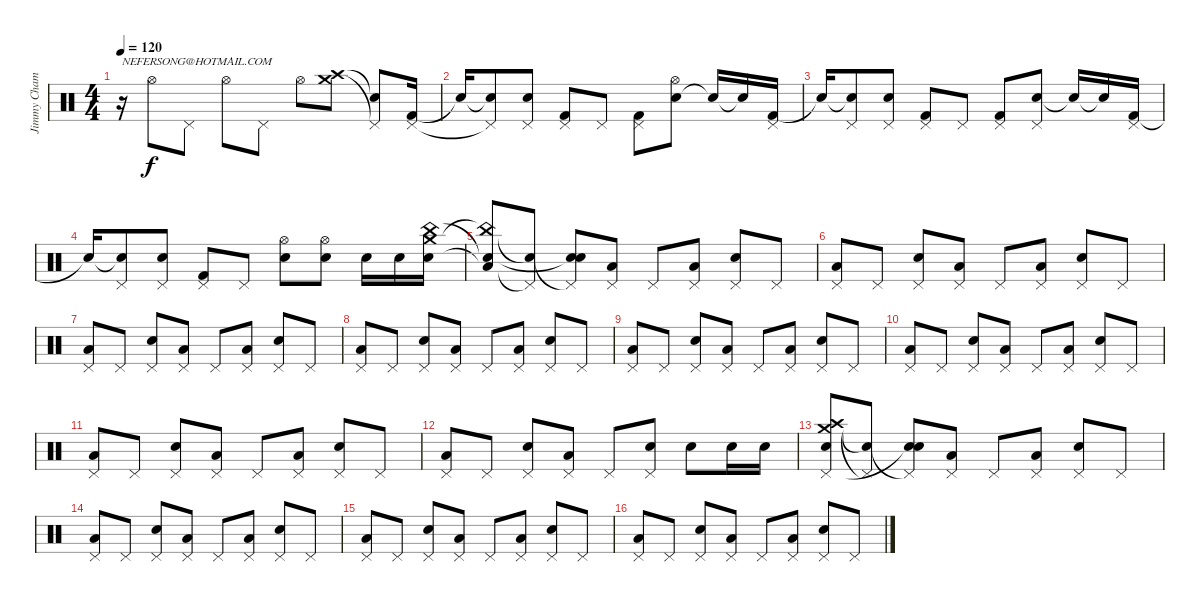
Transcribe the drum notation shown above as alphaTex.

\track ("Jimmy Chamberlin" "Jimmy Cham") {instrument percussion}
\staff {score}
\articulation defaults
\ts (4 4)
\tempo 120
\clef neutral
\ks c
r.16{txt "NEFERSONG@HOTMAIL.COM" dy f} "Hi-Hat (open)".8 "Pedal Hi-Hat (hit)".8 "Hi-Hat (open)".8 "Pedal Hi-Hat (hit)".8 "Hi-Hat (open)".8 ("Crash high (hit)" "Crash medium (hit)").8 ("Snare (hit)"{t} "Pedal Hi-Hat (hit)"{t}).8 ("Kick (hit) 2" "Pedal Hi-Hat (hit)").16 |
"Snare (hit)"{t}.16 ("Snare (hit) 2"{t} "Pedal Hi-Hat (hit)"{t}).8 ("Snare (hit) 2" "Pedal Hi-Hat (hit)").8 ("Kick (hit) 2" "Pedal Hi-Hat (hit)").8 "Pedal Hi-Hat (hit)".8 ("Kick (hit) 2" "Pedal Hi-Hat (hit)").8 ("Snare (hit) 2" "Hi-Hat (open)").8 "Snare (hit)"{t}.16 "Snare (hit)"{t}.16 ("Kick (hit) 2" "Pedal Hi-Hat (hit)").16 |
"Snare (hit)"{t}.16 ("Snare (hit) 2"{t} "Pedal Hi-Hat (hit)").8 ("Snare (hit) 2" "Pedal Hi-Hat (hit)").8 ("Kick (hit) 2" "Pedal Hi-Hat (hit)").8 "Pedal Hi-Hat (hit)".8 ("Kick (hit) 2" "Pedal Hi-Hat (hit)").8 ("Snare (hit) 2" "Pedal Hi-Hat (hit)").8 "Snare (hit)"{t}.16 "Snare (hit)"{t}.16 ("Kick (hit) 2" "Pedal Hi-Hat (hit)").16 |
"Snare (hit)"{t}.16 ("Snare (hit) 2"{t} "Pedal Hi-Hat (hit)").8 ("Snare (hit) 2" "Pedal Hi-Hat (hit)").8 ("Kick (hit) 2" "Pedal Hi-Hat (hit)").8 "Pedal Hi-Hat (hit)".8 ("Snare (hit) 2" "Hi-Hat (open)").8 ("Snare (hit) 2" "Hi-Hat (open)").8 "Snare (hit) 2".16 "Snare (hit) 2".16 ("Snare (hit) 2" "Crash medium (hit)" "China (hit)").16 |
("Low Floor Tom (hit)"{t} "China (hit)"{t} "Snare (hit)"{t}).8 ("Pedal Hi-Hat (hit)"{t} "Snare (hit)"{t}).8 ("Snare (hit) 2" "Pedal Hi-Hat (hit)"{t} "Snare (hit)"{t}).8 ("Low Floor Tom (hit)" "Pedal Hi-Hat (hit)").8 "Pedal Hi-Hat (hit)".8 ("Low Floor Tom (hit)" "Pedal Hi-Hat (hit)").8 ("Snare (hit) 2" "Pedal Hi-Hat (hit)").8 "Pedal Hi-Hat (hit)".8 |
("Low Floor Tom (hit)" "Pedal Hi-Hat (hit)").8 "Pedal Hi-Hat (hit)".8 ("Snare (hit) 2" "Pedal Hi-Hat (hit)").8 ("Low Floor Tom (hit)" "Pedal Hi-Hat (hit)").8 "Pedal Hi-Hat (hit)".8 ("Low Floor Tom (hit)" "Pedal Hi-Hat (hit)").8 ("Snare (hit) 2" "Pedal Hi-Hat (hit)").8 "Pedal Hi-Hat (hit)".8 |
("Low Floor Tom (hit)" "Pedal Hi-Hat (hit)").8 "Pedal Hi-Hat (hit)".8 ("Snare (hit) 2" "Pedal Hi-Hat (hit)").8 ("Low Floor Tom (hit)" "Pedal Hi-Hat (hit)").8 "Pedal Hi-Hat (hit)".8 ("Low Floor Tom (hit)" "Pedal Hi-Hat (hit)").8 ("Snare (hit) 2" "Pedal Hi-Hat (hit)").8 "Pedal Hi-Hat (hit)".8 |
("Low Floor Tom (hit)" "Pedal Hi-Hat (hit)").8 "Pedal Hi-Hat (hit)".8 ("Snare (hit) 2" "Pedal Hi-Hat (hit)").8 ("Low Floor Tom (hit)" "Pedal Hi-Hat (hit)").8 "Pedal Hi-Hat (hit)".8 ("Low Floor Tom (hit)" "Pedal Hi-Hat (hit)").8 ("Snare (hit) 2" "Pedal Hi-Hat (hit)").8 "Pedal Hi-Hat (hit)".8 |
("Low Floor Tom (hit)" "Pedal Hi-Hat (hit)").8 "Pedal Hi-Hat (hit)".8 ("Snare (hit) 2" "Pedal Hi-Hat (hit)").8 ("Low Floor Tom (hit)" "Pedal Hi-Hat (hit)").8 "Pedal Hi-Hat (hit)".8 ("Low Floor Tom (hit)" "Pedal Hi-Hat (hit)").8 ("Snare (hit) 2" "Pedal Hi-Hat (hit)").8 "Pedal Hi-Hat (hit)".8 |
("Low Floor Tom (hit)" "Pedal Hi-Hat (hit)").8 "Pedal Hi-Hat (hit)".8 ("Snare (hit) 2" "Pedal Hi-Hat (hit)").8 ("Low Floor Tom (hit)" "Pedal Hi-Hat (hit)").8 "Pedal Hi-Hat (hit)".8 ("Low Floor Tom (hit)" "Pedal Hi-Hat (hit)").8 ("Snare (hit) 2" "Pedal Hi-Hat (hit)").8 "Pedal Hi-Hat (hit)".8 |
("Low Floor Tom (hit)" "Pedal Hi-Hat (hit)").8 "Pedal Hi-Hat (hit)".8 ("Snare (hit) 2" "Pedal Hi-Hat (hit)").8 ("Low Floor Tom (hit)" "Pedal Hi-Hat (hit)").8 "Pedal Hi-Hat (hit)".8 ("Low Floor Tom (hit)" "Pedal Hi-Hat (hit)").8 ("Snare (hit) 2" "Pedal Hi-Hat (hit)").8 "Pedal Hi-Hat (hit)".8 |
("Low Floor Tom (hit)" "Pedal Hi-Hat (hit)").8 "Pedal Hi-Hat (hit)".8 ("Snare (hit) 2" "Pedal Hi-Hat (hit)").8 ("Low Floor Tom (hit)" "Pedal Hi-Hat (hit)").8 "Pedal Hi-Hat (hit)".8 ("Snare (hit) 2" "Pedal Hi-Hat (hit)").8 "Snare (hit) 2".8 "Snare (hit) 2".16 "Snare (hit) 2".16 |
("Crash high (hit)" "Crash medium (hit)" "Pedal Hi-Hat (hit)" "Snare (hit)").8 ("Pedal Hi-Hat (hit)"{t} "Snare (hit)"{t}).8 ("Snare (hit) 2" "Pedal Hi-Hat (hit)"{t} "Snare (hit)"{t}).8 ("Low Floor Tom (hit)" "Pedal Hi-Hat (hit)").8 "Pedal Hi-Hat (hit)".8 ("Low Floor Tom (hit)" "Pedal Hi-Hat (hit)").8 ("Snare (hit) 2" "Pedal Hi-Hat (hit)").8 "Pedal Hi-Hat (hit)".8 |
("Low Floor Tom (hit)" "Pedal Hi-Hat (hit)").8 "Pedal Hi-Hat (hit)".8 ("Snare (hit) 2" "Pedal Hi-Hat (hit)").8 ("Low Floor Tom (hit)" "Pedal Hi-Hat (hit)").8 "Pedal Hi-Hat (hit)".8 ("Low Floor Tom (hit)" "Pedal Hi-Hat (hit)").8 ("Snare (hit) 2" "Pedal Hi-Hat (hit)").8 "Pedal Hi-Hat (hit)".8 |
("Low Floor Tom (hit)" "Pedal Hi-Hat (hit)").8 "Pedal Hi-Hat (hit)".8 ("Snare (hit) 2" "Pedal Hi-Hat (hit)").8 ("Low Floor Tom (hit)" "Pedal Hi-Hat (hit)").8 "Pedal Hi-Hat (hit)".8 ("Low Floor Tom (hit)" "Pedal Hi-Hat (hit)").8 ("Snare (hit) 2" "Pedal Hi-Hat (hit)").8 "Pedal Hi-Hat (hit)".8 |
("Low Floor Tom (hit)" "Pedal Hi-Hat (hit)").8 "Pedal Hi-Hat (hit)".8 ("Snare (hit) 2" "Pedal Hi-Hat (hit)").8 ("Low Floor Tom (hit)" "Pedal Hi-Hat (hit)").8 "Pedal Hi-Hat (hit)".8 ("Low Floor Tom (hit)" "Pedal Hi-Hat (hit)").8 ("Snare (hit) 2" "Pedal Hi-Hat (hit)").8 "Pedal Hi-Hat (hit)".8
